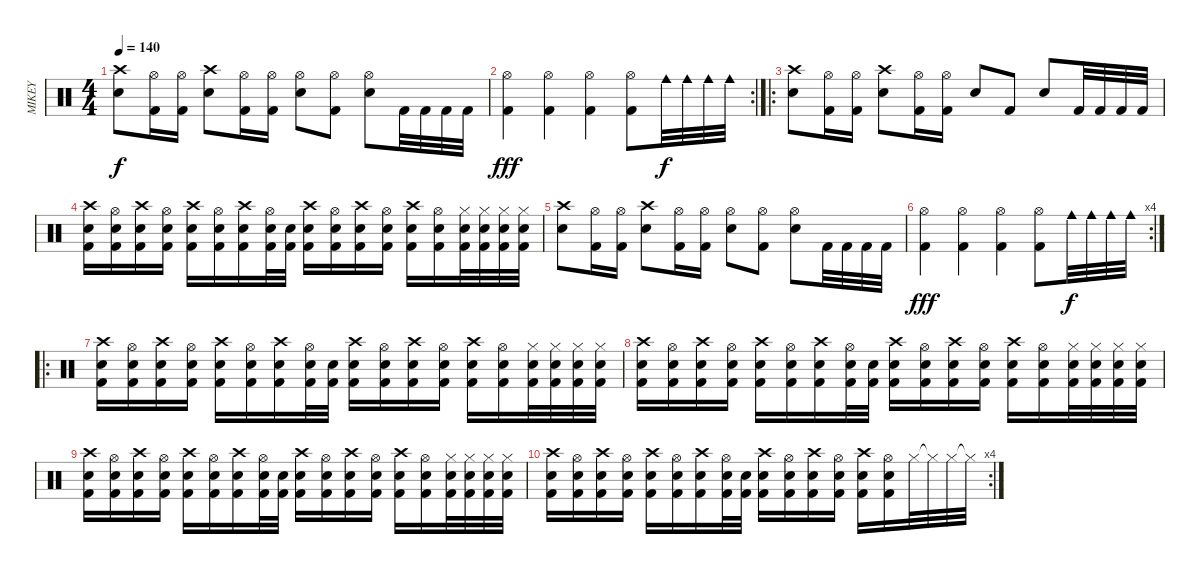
\track ("MIKEY" "MIKEY") {instrument percussion}
\staff {score}
\articulation defaults
\ts (4 4)
\tempo 140
\clef neutral
\ks c
("Crash high (hit)" "Electric Snare (hit)").8{dy f} ("Hi-Hat (open)" "Kick (hit) 2").16 ("Hi-Hat (open)" "Kick (hit) 2").16 ("Crash high (hit)" "Electric Snare (hit)").8 ("Hi-Hat (open)" "Kick (hit) 2").16 ("Hi-Hat (open)" "Kick (hit) 2").16 ("Hi-Hat (open)" "Electric Snare (hit)").8 ("Hi-Hat (open)" "Kick (hit) 2").8 ("Hi-Hat (open)" "Electric Snare (hit)").8 "Kick (hit) 2".32 "Kick (hit) 2".32 "Kick (hit) 2".32 "Kick (hit) 2".32 |
\rc 2
("Kick (hit) 2" "Hi-Hat (open)").4{dy fff} ("Kick (hit) 2" "Hi-Hat (open)").4 ("Kick (hit) 2" "Hi-Hat (open)").4 ("Kick (hit) 2" "Hi-Hat (open)").8 "Cowbell medium (hit)".32{dy f} "Cowbell medium (hit)".32 "Cowbell medium (hit)".32 "Cowbell medium (hit)".32 |
\ro
("Crash high (hit)" "Electric Snare (hit)").8 ("Hi-Hat (open)" "Kick (hit) 2").16 ("Hi-Hat (open)" "Kick (hit) 2").16 ("Crash high (hit)" "Electric Snare (hit)").8 ("Hi-Hat (open)" "Kick (hit) 2").16 ("Hi-Hat (open)" "Kick (hit) 2").16 "Electric Snare (hit)".8 "Kick (hit) 2".8 "Electric Snare (hit)".8 "Kick (hit) 2".32 "Kick (hit) 2".32 "Kick (hit) 2".32 "Kick (hit) 2".32 |
("Crash high (hit)" "Kick (hit) 2" "Electric Snare (hit)").16 ("Hi-Hat (open)" "Kick (hit) 2" "Electric Snare (hit)").16 ("Crash high (hit)" "Kick (hit) 2" "Electric Snare (hit)").16 ("Hi-Hat (open)" "Kick (hit) 2" "Electric Snare (hit)").16 ("Crash high (hit)" "Kick (hit) 2" "Electric Snare (hit)").16 ("Hi-Hat (open)" "Kick (hit) 2" "Electric Snare (hit)").16 ("Crash high (hit)" "Kick (hit) 2" "Electric Snare (hit)").16 ("Hi-Hat (open)" "Kick (hit) 2" "Electric Snare (hit)").32 ("Kick (hit) 2" "Electric Snare (hit)").32 ("Crash high (hit)" "Kick (hit) 2" "Electric Snare (hit)").16 ("Hi-Hat (open)" "Kick (hit) 2" "Electric Snare (hit)").16 ("Crash high (hit)" "Kick (hit) 2" "Electric Snare (hit)").16 ("Hi-Hat (open)" "Kick (hit) 2" "Electric Snare (hit)").16 ("Crash high (hit)" "Kick (hit) 2" "Electric Snare (hit)").16 ("Hi-Hat (open)" "Kick (hit) 2" "Electric Snare (hit)").16 ("Hi-Hat (closed)" "Kick (hit) 2" "Electric Snare (hit)").32 ("Hi-Hat (closed)" "Kick (hit) 2" "Electric Snare (hit)").32 ("Hi-Hat (closed)" "Kick (hit) 2" "Electric Snare (hit)").32 ("Hi-Hat (closed)" "Kick (hit) 2" "Electric Snare (hit)").32 |
("Crash high (hit)" "Electric Snare (hit)").8 ("Hi-Hat (open)" "Kick (hit) 2").16 ("Hi-Hat (open)" "Kick (hit) 2").16 ("Crash high (hit)" "Electric Snare (hit)").8 ("Hi-Hat (open)" "Kick (hit) 2").16 ("Hi-Hat (open)" "Kick (hit) 2").16 ("Hi-Hat (open)" "Electric Snare (hit)").8 ("Hi-Hat (open)" "Kick (hit) 2").8 ("Hi-Hat (open)" "Electric Snare (hit)").8 "Kick (hit) 2".32 "Kick (hit) 2".32 "Kick (hit) 2".32 "Kick (hit) 2".32 |
\rc 4
("Kick (hit) 2" "Hi-Hat (open)").4{dy fff} ("Kick (hit) 2" "Hi-Hat (open)").4 ("Kick (hit) 2" "Hi-Hat (open)").4 ("Kick (hit) 2" "Hi-Hat (open)").8 "Cowbell medium (hit)".32{dy f} "Cowbell medium (hit)".32 "Cowbell medium (hit)".32 "Cowbell medium (hit)".32 |
\ro
("Crash high (hit)" "Kick (hit) 2" "Electric Snare (hit)").16 ("Hi-Hat (open)" "Kick (hit) 2" "Electric Snare (hit)").16 ("Crash high (hit)" "Kick (hit) 2" "Electric Snare (hit)").16 ("Hi-Hat (open)" "Kick (hit) 2" "Electric Snare (hit)").16 ("Crash high (hit)" "Kick (hit) 2" "Electric Snare (hit)").16 ("Hi-Hat (open)" "Kick (hit) 2" "Electric Snare (hit)").16 ("Crash high (hit)" "Kick (hit) 2" "Electric Snare (hit)").16 ("Hi-Hat (open)" "Kick (hit) 2" "Electric Snare (hit)").32 ("Kick (hit) 2" "Electric Snare (hit)").32 ("Crash high (hit)" "Kick (hit) 2" "Electric Snare (hit)").16 ("Hi-Hat (open)" "Kick (hit) 2" "Electric Snare (hit)").16 ("Crash high (hit)" "Kick (hit) 2" "Electric Snare (hit)").16 ("Hi-Hat (open)" "Kick (hit) 2" "Electric Snare (hit)").16 ("Crash high (hit)" "Kick (hit) 2" "Electric Snare (hit)").16 ("Hi-Hat (open)" "Kick (hit) 2" "Electric Snare (hit)").16 ("Hi-Hat (closed)" "Kick (hit) 2" "Electric Snare (hit)").32 ("Hi-Hat (closed)" "Kick (hit) 2" "Electric Snare (hit)").32 ("Hi-Hat (closed)" "Kick (hit) 2" "Electric Snare (hit)").32 ("Hi-Hat (closed)" "Kick (hit) 2" "Electric Snare (hit)").32 |
("Crash high (hit)" "Kick (hit) 2" "Electric Snare (hit)").16 ("Hi-Hat (open)" "Kick (hit) 2" "Electric Snare (hit)").16 ("Crash high (hit)" "Kick (hit) 2" "Electric Snare (hit)").16 ("Hi-Hat (open)" "Kick (hit) 2" "Electric Snare (hit)").16 ("Crash high (hit)" "Kick (hit) 2" "Electric Snare (hit)").16 ("Hi-Hat (open)" "Kick (hit) 2" "Electric Snare (hit)").16 ("Crash high (hit)" "Kick (hit) 2" "Electric Snare (hit)").16 ("Hi-Hat (open)" "Kick (hit) 2" "Electric Snare (hit)").32 ("Kick (hit) 2" "Electric Snare (hit)").32 ("Crash high (hit)" "Kick (hit) 2" "Electric Snare (hit)").16 ("Hi-Hat (open)" "Kick (hit) 2" "Electric Snare (hit)").16 ("Crash high (hit)" "Kick (hit) 2" "Electric Snare (hit)").16 ("Hi-Hat (open)" "Kick (hit) 2" "Electric Snare (hit)").16 ("Crash high (hit)" "Kick (hit) 2" "Electric Snare (hit)").16 ("Hi-Hat (open)" "Kick (hit) 2" "Electric Snare (hit)").16 ("Hi-Hat (closed)" "Kick (hit) 2" "Electric Snare (hit)").32 ("Hi-Hat (closed)" "Kick (hit) 2" "Electric Snare (hit)").32 ("Hi-Hat (closed)" "Kick (hit) 2" "Electric Snare (hit)").32 ("Hi-Hat (closed)" "Kick (hit) 2" "Electric Snare (hit)").32 |
("Crash high (hit)" "Kick (hit) 2" "Electric Snare (hit)").16 ("Hi-Hat (open)" "Kick (hit) 2" "Electric Snare (hit)").16 ("Crash high (hit)" "Kick (hit) 2" "Electric Snare (hit)").16 ("Hi-Hat (open)" "Kick (hit) 2" "Electric Snare (hit)").16 ("Crash high (hit)" "Kick (hit) 2" "Electric Snare (hit)").16 ("Hi-Hat (open)" "Kick (hit) 2" "Electric Snare (hit)").16 ("Crash high (hit)" "Kick (hit) 2" "Electric Snare (hit)").16 ("Hi-Hat (open)" "Kick (hit) 2" "Electric Snare (hit)").32 ("Kick (hit) 2" "Electric Snare (hit)").32 ("Crash high (hit)" "Kick (hit) 2" "Electric Snare (hit)").16 ("Hi-Hat (open)" "Kick (hit) 2" "Electric Snare (hit)").16 ("Crash high (hit)" "Kick (hit) 2" "Electric Snare (hit)").16 ("Hi-Hat (open)" "Kick (hit) 2" "Electric Snare (hit)").16 ("Crash high (hit)" "Kick (hit) 2" "Electric Snare (hit)").16 ("Hi-Hat (open)" "Kick (hit) 2" "Electric Snare (hit)").16 ("Hi-Hat (closed)" "Kick (hit) 2" "Electric Snare (hit)").32 ("Hi-Hat (closed)" "Kick (hit) 2" "Electric Snare (hit)").32 ("Hi-Hat (closed)" "Kick (hit) 2" "Electric Snare (hit)").32 ("Hi-Hat (closed)" "Kick (hit) 2" "Electric Snare (hit)").32 |
\rc 4
("Crash high (hit)" "Kick (hit) 2" "Electric Snare (hit)").16 ("Hi-Hat (open)" "Kick (hit) 2" "Electric Snare (hit)").16 ("Crash high (hit)" "Kick (hit) 2" "Electric Snare (hit)").16 ("Hi-Hat (open)" "Kick (hit) 2" "Electric Snare (hit)").16 ("Crash high (hit)" "Kick (hit) 2" "Electric Snare (hit)").16 ("Hi-Hat (open)" "Kick (hit) 2" "Electric Snare (hit)").16 ("Crash high (hit)" "Kick (hit) 2" "Electric Snare (hit)").16 ("Hi-Hat (open)" "Kick (hit) 2" "Electric Snare (hit)").32 ("Kick (hit) 2" "Electric Snare (hit)").32 ("Crash high (hit)" "Kick (hit) 2" "Electric Snare (hit)").16 ("Hi-Hat (open)" "Kick (hit) 2" "Electric Snare (hit)").16 ("Crash high (hit)" "Kick (hit) 2" "Electric Snare (hit)").16 ("Hi-Hat (open)" "Kick (hit) 2" "Electric Snare (hit)").16 ("Crash high (hit)" "Kick (hit) 2" "Electric Snare (hit)").16 ("Hi-Hat (open)" "Kick (hit) 2" "Electric Snare (hit)").16 "Hi-Hat (closed)".32 "Hi-Hat (closed)"{t}.32 "Hi-Hat (closed)".32 "Hi-Hat (closed)"{t}.32
